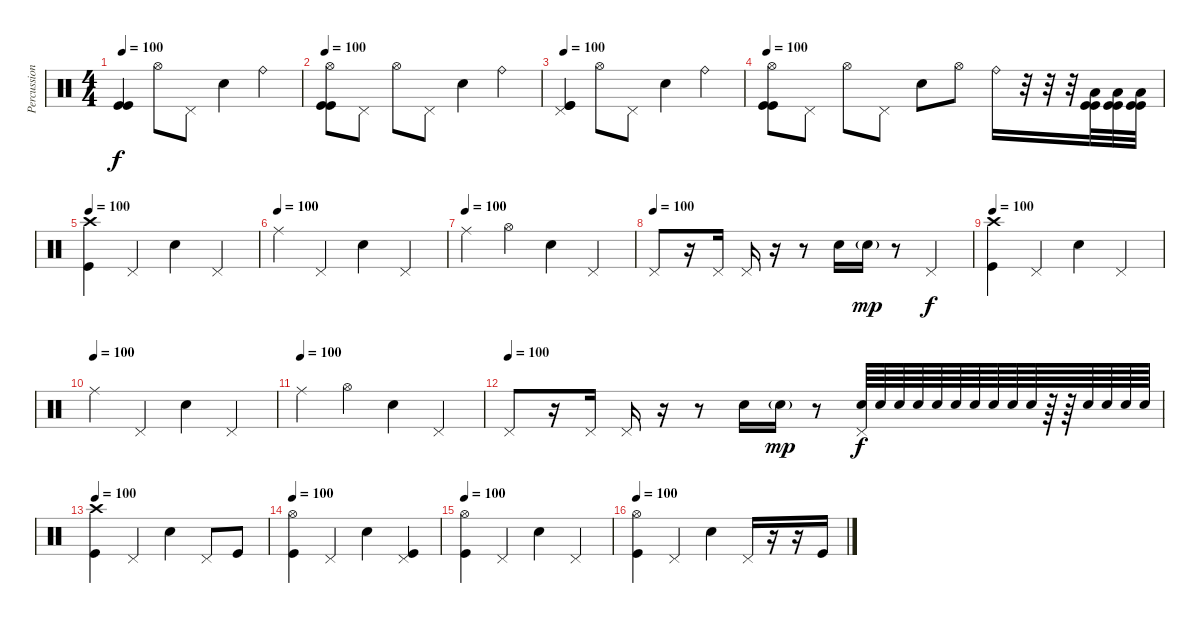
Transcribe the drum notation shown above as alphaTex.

\track ("Percussions" "Percussion") {instrument percussion}
\staff {score}
\articulation defaults
\ts (4 4)
\tempo 100
\clef neutral
\ks c
("Kick (hit)" "Kick (hit)").4{dy f} "Hi-Hat (open)".8 "Pedal Hi-Hat (hit)".8 "Electric Snare (hit)".4 "Ride (bell)".4 |
\tempo 100
("Hi-Hat (open)" "Kick (hit)" "Kick (hit)").8 "Pedal Hi-Hat (hit)".8 "Hi-Hat (open)".8 "Pedal Hi-Hat (hit)".8 "Electric Snare (hit)".4 "Ride (bell)".4 |
\tempo 100
("Pedal Hi-Hat (hit)" "Kick (hit)" "Kick (hit)").4 "Hi-Hat (open)".8 "Pedal Hi-Hat (hit)".8 "Electric Snare (hit)".4 "Ride (bell)".4 |
\tempo 100
("Hi-Hat (open)" "Kick (hit)" "Kick (hit)").8 "Pedal Hi-Hat (hit)".8 "Hi-Hat (open)".8 "Pedal Hi-Hat (hit)".8 "Electric Snare (hit)".8 "Hi-Hat (open)".8 "Ride (bell)".16 r.32 r.32 r.32 ("Low Floor Tom (hit)" "Kick (hit)" "Kick (hit)").32 ("Low Floor Tom (hit)" "Kick (hit)" "Kick (hit)").32 ("Low Floor Tom (hit)" "Kick (hit)" "Kick (hit)").32 |
\tempo 100
("Crash high (hit)" "Kick (hit)").4 "Pedal Hi-Hat (hit)".4 "Electric Snare (hit)".4 "Pedal Hi-Hat (hit)".4 |
\tempo (100)
"Ride (middle)".4 "Pedal Hi-Hat (hit)".4 "Electric Snare (hit)".4 "Pedal Hi-Hat (hit)".4 |
\tempo (100)
"Ride (middle)".4 "Hi-Hat (open)".4 "Electric Snare (hit)".4 "Pedal Hi-Hat (hit)".4 |
\tempo (100)
"Pedal Hi-Hat (hit)".8 r.16 "Pedal Hi-Hat (hit)".16 "Pedal Hi-Hat (hit)".16 r.16 r.8 "Electric Snare (hit)".16 "Electric Snare (hit)"{g}.16{dy mp} r.8 "Pedal Hi-Hat (hit)".4{dy f} |
\tempo 100
("Crash high (hit)" "Kick (hit)").4 "Pedal Hi-Hat (hit)".4 "Electric Snare (hit)".4 "Pedal Hi-Hat (hit)".4 |
\tempo (100)
"Ride (middle)".4 "Pedal Hi-Hat (hit)".4 "Electric Snare (hit)".4 "Pedal Hi-Hat (hit)".4 |
\tempo (100)
"Ride (middle)".4 "Hi-Hat (open)".4 "Electric Snare (hit)".4 "Pedal Hi-Hat (hit)".4 |
\tempo (100)
"Pedal Hi-Hat (hit)".8 r.16 "Pedal Hi-Hat (hit)".16 "Pedal Hi-Hat (hit)".16 r.16 r.8 "Electric Snare (hit)".16 "Electric Snare (hit)"{g}.16{dy mp} r.8 ("Pedal Hi-Hat (hit)" "Electric Snare (hit)").64{dy f} "Electric Snare (hit)".64 "Electric Snare (hit)".64 "Electric Snare (hit)".64 "Electric Snare (hit)".64 "Electric Snare (hit)".64 "Electric Snare (hit)".64 "Electric Snare (hit)".64 "Electric Snare (hit)".64 "Electric Snare (hit)".64 r.64 r.64 "Electric Snare (hit)".64 "Electric Snare (hit)".64 "Electric Snare (hit)".64 "Electric Snare (hit)".64 |
\tempo 100
("Crash high (hit)" "Kick (hit)").4 "Pedal Hi-Hat (hit)".4 "Electric Snare (hit)".4 "Pedal Hi-Hat (hit)".8 "Kick (hit)".8 |
\tempo 100
("Hi-Hat (open)" "Kick (hit)").4 "Pedal Hi-Hat (hit)".4 "Electric Snare (hit)".4 ("Pedal Hi-Hat (hit)" "Kick (hit)").4 |
\tempo 100
("Hi-Hat (open)" "Kick (hit)").4 "Pedal Hi-Hat (hit)".4 "Electric Snare (hit)".4 "Pedal Hi-Hat (hit)".4 |
\tempo 100
("Hi-Hat (open)" "Kick (hit)").4 "Pedal Hi-Hat (hit)".4 "Electric Snare (hit)".4 "Pedal Hi-Hat (hit)".16 r.16 r.16 "Kick (hit)".16
